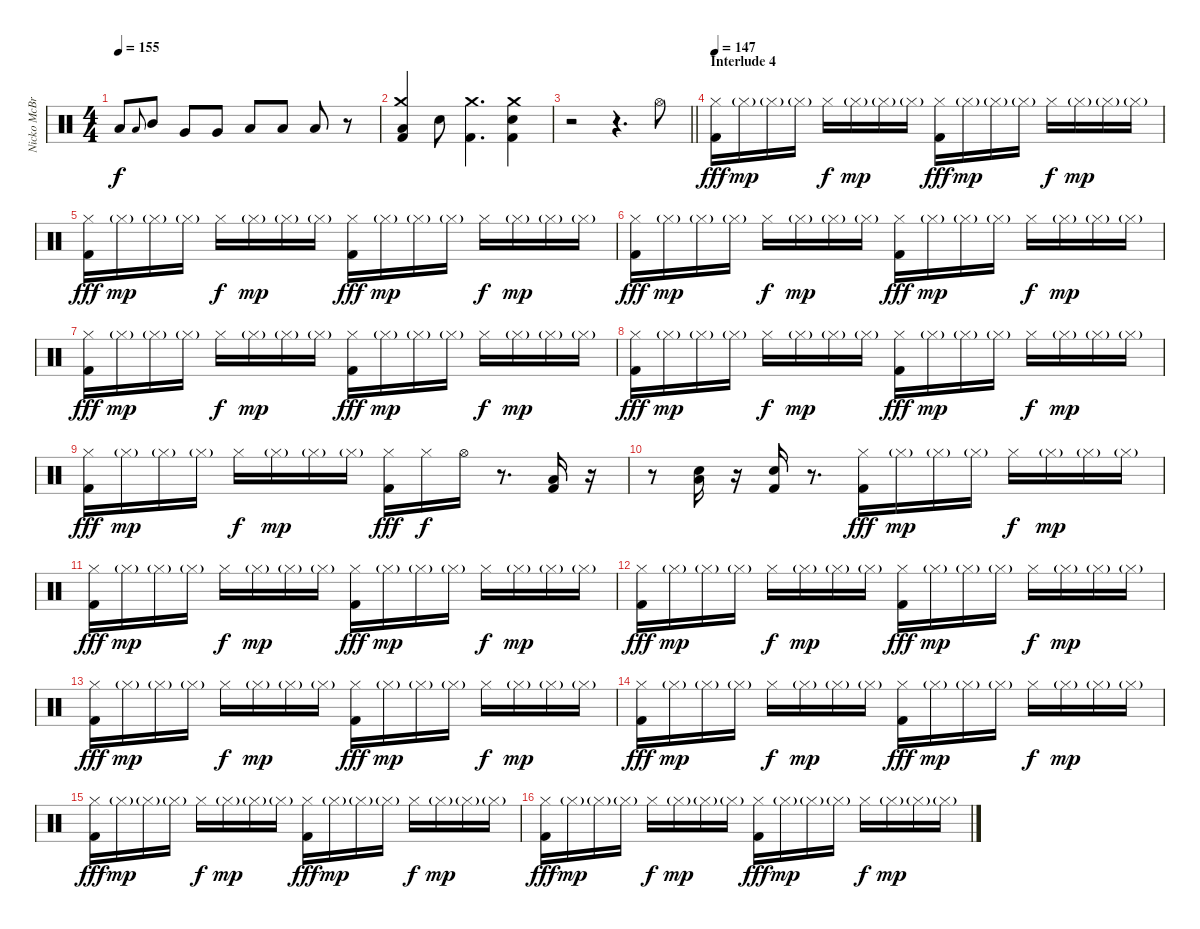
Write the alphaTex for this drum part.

\track ("Nicko McBrain" "Nicko McBr") {instrument percussion}
\staff {score}
\articulation defaults
\ts (4 4)
\tempo 155
\clef neutral
\ks c "Low Floor Tom (hit)".8{dy f} "Low Tom (hit)".8{gr onbeat} "Mid Tom (hit)".8 "Very Low Tom (hit)".8 "Very Low Tom (hit)".8 "Low Tom (hit)".8 "Low Floor Tom (hit)".8 "Low Floor Tom (hit)".8
r.8 |
("Crash medium (hit)" "Low Floor Tom (hit)" "Kick (hit) 2").4 "Snare (hit) 2".8 ("Crash medium (hit)" "Kick (hit) 2").4{d} ("Crash medium (hit)" "Snare (hit) 2" "Kick (hit) 2").4 |
\barLineRight lightlight
r.2 r.4{d} "Hi-Hat (open)".8 |
\section ("" "Interlude 4")
\tempo 147
("Hi-Hat (closed)" "Kick (hit) 2").16{dy fff} "Hi-Hat (closed)"{g}.16{dy mp} "Hi-Hat (closed)"{g}.16 "Hi-Hat (closed)"{g}.16 "Hi-Hat (closed)".16{dy f} "Hi-Hat (closed)"{g}.16{dy mp} "Hi-Hat (closed)"{g}.16 "Hi-Hat (closed)"{g}.16 ("Hi-Hat (closed)" "Kick (hit) 2").16{dy fff} "Hi-Hat (closed)"{g}.16{dy mp} "Hi-Hat (closed)"{g}.16 "Hi-Hat (closed)"{g}.16 "Hi-Hat (closed)".16{dy f} "Hi-Hat (closed)"{g}.16{dy mp} "Hi-Hat (closed)"{g}.16 "Hi-Hat (closed)"{g}.16 |
("Hi-Hat (closed)" "Kick (hit) 2").16{dy fff} "Hi-Hat (closed)"{g}.16{dy mp} "Hi-Hat (closed)"{g}.16 "Hi-Hat (closed)"{g}.16 "Hi-Hat (closed)".16{dy f} "Hi-Hat (closed)"{g}.16{dy mp} "Hi-Hat (closed)"{g}.16 "Hi-Hat (closed)"{g}.16 ("Hi-Hat (closed)" "Kick (hit) 2").16{dy fff} "Hi-Hat (closed)"{g}.16{dy mp} "Hi-Hat (closed)"{g}.16 "Hi-Hat (closed)"{g}.16 "Hi-Hat (closed)".16{dy f} "Hi-Hat (closed)"{g}.16{dy mp} "Hi-Hat (closed)"{g}.16 "Hi-Hat (closed)"{g}.16 |
("Hi-Hat (closed)" "Kick (hit) 2").16{dy fff} "Hi-Hat (closed)"{g}.16{dy mp} "Hi-Hat (closed)"{g}.16 "Hi-Hat (closed)"{g}.16 "Hi-Hat (closed)".16{dy f} "Hi-Hat (closed)"{g}.16{dy mp} "Hi-Hat (closed)"{g}.16 "Hi-Hat (closed)"{g}.16 ("Hi-Hat (closed)" "Kick (hit) 2").16{dy fff} "Hi-Hat (closed)"{g}.16{dy mp} "Hi-Hat (closed)"{g}.16 "Hi-Hat (closed)"{g}.16 "Hi-Hat (closed)".16{dy f} "Hi-Hat (closed)"{g}.16{dy mp} "Hi-Hat (closed)"{g}.16 "Hi-Hat (closed)"{g}.16 |
("Hi-Hat (closed)" "Kick (hit) 2").16{dy fff} "Hi-Hat (closed)"{g}.16{dy mp} "Hi-Hat (closed)"{g}.16 "Hi-Hat (closed)"{g}.16 "Hi-Hat (closed)".16{dy f} "Hi-Hat (closed)"{g}.16{dy mp} "Hi-Hat (closed)"{g}.16 "Hi-Hat (closed)"{g}.16 ("Hi-Hat (closed)" "Kick (hit) 2").16{dy fff} "Hi-Hat (closed)"{g}.16{dy mp} "Hi-Hat (closed)"{g}.16 "Hi-Hat (closed)"{g}.16 "Hi-Hat (closed)".16{dy f} "Hi-Hat (closed)"{g}.16{dy mp} "Hi-Hat (closed)"{g}.16 "Hi-Hat (closed)"{g}.16 |
("Hi-Hat (closed)" "Kick (hit) 2").16{dy fff} "Hi-Hat (closed)"{g}.16{dy mp} "Hi-Hat (closed)"{g}.16 "Hi-Hat (closed)"{g}.16 "Hi-Hat (closed)".16{dy f} "Hi-Hat (closed)"{g}.16{dy mp} "Hi-Hat (closed)"{g}.16 "Hi-Hat (closed)"{g}.16 ("Hi-Hat (closed)" "Kick (hit) 2").16{dy fff} "Hi-Hat (closed)"{g}.16{dy mp} "Hi-Hat (closed)"{g}.16 "Hi-Hat (closed)"{g}.16 "Hi-Hat (closed)".16{dy f} "Hi-Hat (closed)"{g}.16{dy mp} "Hi-Hat (closed)"{g}.16 "Hi-Hat (closed)"{g}.16 |
("Hi-Hat (closed)" "Kick (hit) 2").16{dy fff} "Hi-Hat (closed)"{g}.16{dy mp} "Hi-Hat (closed)"{g}.16 "Hi-Hat (closed)"{g}.16 "Hi-Hat (closed)".16{dy f} "Hi-Hat (closed)"{g}.16{dy mp} "Hi-Hat (closed)"{g}.16 "Hi-Hat (closed)"{g}.16 ("Hi-Hat (closed)" "Kick (hit) 2").16{dy fff} "Hi-Hat (closed)".16{dy f} "Hi-Hat (open)".16 r.8{d} ("Low Floor Tom (hit)" "Kick (hit) 2").16 r.16 |
r.8 ("Low Floor Tom (hit)" "Snare (hit) 2").16 r.16 ("Snare (hit) 2" "Kick (hit) 2").16 r.8{d} ("Hi-Hat (closed)" "Kick (hit) 2").16{dy fff} "Hi-Hat (closed)"{g}.16{dy mp} "Hi-Hat (closed)"{g}.16 "Hi-Hat (closed)"{g}.16 "Hi-Hat (closed)".16{dy f} "Hi-Hat (closed)"{g}.16{dy mp} "Hi-Hat (closed)"{g}.16 "Hi-Hat (closed)"{g}.16 |
("Hi-Hat (closed)" "Kick (hit) 2").16{dy fff} "Hi-Hat (closed)"{g}.16{dy mp} "Hi-Hat (closed)"{g}.16 "Hi-Hat (closed)"{g}.16 "Hi-Hat (closed)".16{dy f} "Hi-Hat (closed)"{g}.16{dy mp} "Hi-Hat (closed)"{g}.16 "Hi-Hat (closed)"{g}.16 ("Hi-Hat (closed)" "Kick (hit) 2").16{dy fff} "Hi-Hat (closed)"{g}.16{dy mp} "Hi-Hat (closed)"{g}.16 "Hi-Hat (closed)"{g}.16 "Hi-Hat (closed)".16{dy f} "Hi-Hat (closed)"{g}.16{dy mp} "Hi-Hat (closed)"{g}.16 "Hi-Hat (closed)"{g}.16 |
("Hi-Hat (closed)" "Kick (hit) 2").16{dy fff} "Hi-Hat (closed)"{g}.16{dy mp} "Hi-Hat (closed)"{g}.16 "Hi-Hat (closed)"{g}.16 "Hi-Hat (closed)".16{dy f} "Hi-Hat (closed)"{g}.16{dy mp} "Hi-Hat (closed)"{g}.16 "Hi-Hat (closed)"{g}.16 ("Hi-Hat (closed)" "Kick (hit) 2").16{dy fff} "Hi-Hat (closed)"{g}.16{dy mp} "Hi-Hat (closed)"{g}.16 "Hi-Hat (closed)"{g}.16 "Hi-Hat (closed)".16{dy f} "Hi-Hat (closed)"{g}.16{dy mp} "Hi-Hat (closed)"{g}.16 "Hi-Hat (closed)"{g}.16 |
("Hi-Hat (closed)" "Kick (hit) 2").16{dy fff} "Hi-Hat (closed)"{g}.16{dy mp} "Hi-Hat (closed)"{g}.16 "Hi-Hat (closed)"{g}.16 "Hi-Hat (closed)".16{dy f} "Hi-Hat (closed)"{g}.16{dy mp} "Hi-Hat (closed)"{g}.16 "Hi-Hat (closed)"{g}.16 ("Hi-Hat (closed)" "Kick (hit) 2").16{dy fff} "Hi-Hat (closed)"{g}.16{dy mp} "Hi-Hat (closed)"{g}.16 "Hi-Hat (closed)"{g}.16 "Hi-Hat (closed)".16{dy f} "Hi-Hat (closed)"{g}.16{dy mp} "Hi-Hat (closed)"{g}.16 "Hi-Hat (closed)"{g}.16 |
("Hi-Hat (closed)" "Kick (hit) 2").16{dy fff} "Hi-Hat (closed)"{g}.16{dy mp} "Hi-Hat (closed)"{g}.16 "Hi-Hat (closed)"{g}.16 "Hi-Hat (closed)".16{dy f} "Hi-Hat (closed)"{g}.16{dy mp} "Hi-Hat (closed)"{g}.16 "Hi-Hat (closed)"{g}.16 ("Hi-Hat (closed)" "Kick (hit) 2").16{dy fff} "Hi-Hat (closed)"{g}.16{dy mp} "Hi-Hat (closed)"{g}.16 "Hi-Hat (closed)"{g}.16 "Hi-Hat (closed)".16{dy f} "Hi-Hat (closed)"{g}.16{dy mp} "Hi-Hat (closed)"{g}.16 "Hi-Hat (closed)"{g}.16 |
("Hi-Hat (closed)" "Kick (hit) 2").16{dy fff} "Hi-Hat (closed)"{g}.16{dy mp} "Hi-Hat (closed)"{g}.16 "Hi-Hat (closed)"{g}.16 "Hi-Hat (closed)".16{dy f} "Hi-Hat (closed)"{g}.16{dy mp} "Hi-Hat (closed)"{g}.16 "Hi-Hat (closed)"{g}.16 ("Hi-Hat (closed)" "Kick (hit) 2").16{dy fff} "Hi-Hat (closed)"{g}.16{dy mp} "Hi-Hat (closed)"{g}.16 "Hi-Hat (closed)"{g}.16 "Hi-Hat (closed)".16{dy f} "Hi-Hat (closed)"{g}.16{dy mp} "Hi-Hat (closed)"{g}.16 "Hi-Hat (closed)"{g}.16 |
("Hi-Hat (closed)" "Kick (hit) 2").16{dy fff} "Hi-Hat (closed)"{g}.16{dy mp} "Hi-Hat (closed)"{g}.16 "Hi-Hat (closed)"{g}.16 "Hi-Hat (closed)".16{dy f} "Hi-Hat (closed)"{g}.16{dy mp} "Hi-Hat (closed)"{g}.16 "Hi-Hat (closed)"{g}.16 ("Hi-Hat (closed)" "Kick (hit) 2").16{dy fff} "Hi-Hat (closed)"{g}.16{dy mp} "Hi-Hat (closed)"{g}.16 "Hi-Hat (closed)"{g}.16 "Hi-Hat (closed)".16{dy f} "Hi-Hat (closed)"{g}.16{dy mp} "Hi-Hat (closed)"{g}.16 "Hi-Hat (closed)"{g}.16
